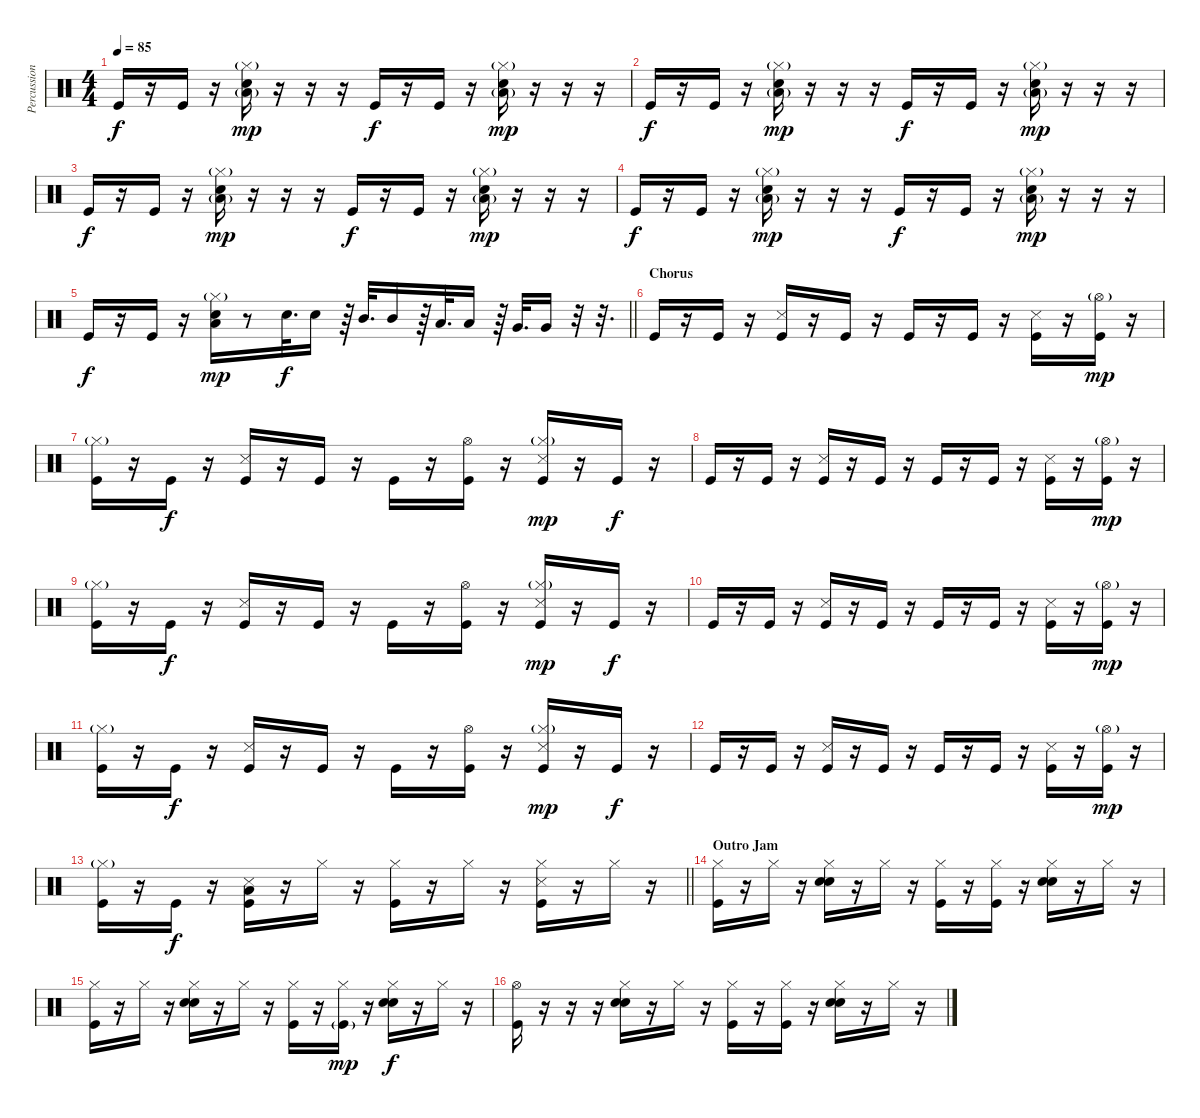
\track ("Percussion" "Percussion") {instrument percussion}
\staff {score}
\articulation defaults
\ts (4 4)
\tempo 85
\clef neutral
\ks c "Kick (hit)".16{dy f}
r.16 "Kick (hit)".16 r.16 ("Hi-Hat (closed)"{g} "Low Tom (hit)"{g} "Snare (hit) 2").16{dy mp} r.16 r.16 r.16 "Kick (hit)".16{dy f} r.16 "Kick (hit)".16 r.16 ("Hi-Hat (closed)"{g} "Low Tom (hit)"{g} "Snare (hit) 2").16{dy mp} r.16 r.16 r.16 |
"Kick (hit)".16{dy f} r.16 "Kick (hit)".16 r.16 ("Hi-Hat (closed)"{g} "Low Tom (hit)"{g} "Snare (hit) 2").16{dy mp} r.16 r.16 r.16 "Kick (hit)".16{dy f} r.16 "Kick (hit)".16 r.16 ("Hi-Hat (closed)"{g} "Low Tom (hit)"{g} "Snare (hit) 2").16{dy mp} r.16 r.16 r.16 |
"Kick (hit)".16{dy f} r.16 "Kick (hit)".16 r.16 ("Hi-Hat (closed)"{g} "Low Tom (hit)"{g} "Snare (hit) 2").16{dy mp} r.16 r.16 r.16 "Kick (hit)".16{dy f} r.16 "Kick (hit)".16 r.16 ("Hi-Hat (closed)"{g} "Low Tom (hit)"{g} "Snare (hit) 2").16{dy mp} r.16 r.16 r.16 |
"Kick (hit)".16{dy f} r.16 "Kick (hit)".16 r.16 ("Hi-Hat (closed)"{g} "Low Tom (hit)"{g} "Snare (hit) 2").16{dy mp} r.16 r.16 r.16 "Kick (hit)".16{dy f} r.16 "Kick (hit)".16 r.16 ("Hi-Hat (closed)"{g} "Low Tom (hit)"{g} "Snare (hit) 2").16{dy mp} r.16 r.16 r.16 |
\barLineRight lightlight "Kick (hit)".16{dy f}
r.16 "Kick (hit)".16 r.16 ("Hi-Hat (closed)"{g} "Low Tom (hit)" "Snare (hit) 2").16{dy mp} r.8 "Snare (hit) 2".32{d dy f} "Snare (hit) 2".16 r.64 "Mid Tom (hit)".32{d} "Mid Tom (hit)".16 r.64 "Low Tom (hit)".32{d} "Low Tom (hit)".16 r.64 "Very Low Tom (hit)".32{d} "Very Low Tom (hit)".16 r.32 r.32{d} |
\section ("" "Chorus")
"Kick (hit)".16 r.16 "Kick (hit)".16 r.16 ("Snare (side stick) 3" "Kick (hit)").16 r.16 "Kick (hit)".16 r.16 "Kick (hit)".16 r.16 "Kick (hit)".16 r.16 ("Snare (side stick) 3" "Kick (hit)").16 r.16 ("Hi-Hat (open)"{g} "Kick (hit)").16{dy mp} r.16 |
("Hi-Hat (closed)"{g} "Kick (hit)").16 r.16 "Kick (hit)".16{dy f} r.16 ("Snare (side stick) 3" "Kick (hit)").16 r.16 "Kick (hit)".16 r.16 "Kick (hit)".16 r.16 ("Hi-Hat (open)" "Kick (hit)").16 r.16 ("Hi-Hat (closed)"{g} "Snare (side stick) 3" "Kick (hit)").16{dy mp} r.16 "Kick (hit)".16{dy f} r.16 |
"Kick (hit)".16 r.16 "Kick (hit)".16 r.16 ("Snare (side stick) 3" "Kick (hit)").16 r.16 "Kick (hit)".16 r.16 "Kick (hit)".16 r.16 "Kick (hit)".16 r.16 ("Snare (side stick) 3" "Kick (hit)").16 r.16 ("Hi-Hat (open)"{g} "Kick (hit)").16{dy mp} r.16 |
("Hi-Hat (closed)"{g} "Kick (hit)").16 r.16 "Kick (hit)".16{dy f} r.16 ("Snare (side stick) 3" "Kick (hit)").16 r.16 "Kick (hit)".16 r.16 "Kick (hit)".16 r.16 ("Hi-Hat (open)" "Kick (hit)").16 r.16 ("Hi-Hat (closed)"{g} "Snare (side stick) 3" "Kick (hit)").16{dy mp} r.16 "Kick (hit)".16{dy f} r.16 |
"Kick (hit)".16 r.16 "Kick (hit)".16 r.16 ("Snare (side stick) 3" "Kick (hit)").16 r.16 "Kick (hit)".16 r.16 "Kick (hit)".16 r.16 "Kick (hit)".16 r.16 ("Snare (side stick) 3" "Kick (hit)").16 r.16 ("Hi-Hat (open)"{g} "Kick (hit)").16{dy mp} r.16 |
("Hi-Hat (closed)"{g} "Kick (hit)").16 r.16 "Kick (hit)".16{dy f} r.16 ("Snare (side stick) 3" "Kick (hit)").16 r.16 "Kick (hit)".16 r.16 "Kick (hit)".16 r.16 ("Hi-Hat (open)" "Kick (hit)").16 r.16 ("Hi-Hat (closed)"{g} "Snare (side stick) 3" "Kick (hit)").16{dy mp} r.16 "Kick (hit)".16{dy f} r.16 |
"Kick (hit)".16 r.16 "Kick (hit)".16 r.16 ("Snare (side stick) 3" "Kick (hit)").16 r.16 "Kick (hit)".16 r.16 "Kick (hit)".16 r.16 "Kick (hit)".16 r.16 ("Snare (side stick) 3" "Kick (hit)").16 r.16 ("Hi-Hat (open)"{g} "Kick (hit)").16{dy mp} r.16 |
\barLineRight lightlight
("Hi-Hat (closed)"{g} "Kick (hit)").16 r.16 "Kick (hit)".16{dy f} r.16 ("Low Tom (hit)" "Snare (side stick) 3" "Kick (hit)").16 r.16 "Hi-Hat (closed)".16 r.16 ("Hi-Hat (closed)" "Kick (hit)").16 r.16 "Hi-Hat (closed)".16 r.16 ("Hi-Hat (closed)" "Snare (side stick) 3" "Kick (hit)").16 r.16 "Hi-Hat (closed)".16 r.16 |
\section ("" "Outro Jam")
("Hi-Hat (closed)" "Kick (hit)").16 r.16 "Hi-Hat (closed)".16 r.16 ("Hi-Hat (closed)" "Hand Clap (hit)" "Snare (hit) 2").16 r.16 "Hi-Hat (closed)".16 r.16 ("Hi-Hat (closed)" "Kick (hit)").16 r.16 ("Hi-Hat (closed)" "Kick (hit)").16 r.16 ("Hi-Hat (closed)" "Hand Clap (hit)" "Snare (hit) 2").16 r.16 "Hi-Hat (closed)".16 r.16 |
("Hi-Hat (closed)" "Kick (hit)").16 r.16 "Hi-Hat (closed)".16 r.16 ("Hi-Hat (closed)" "Hand Clap (hit)" "Snare (hit) 2").16 r.16 "Hi-Hat (closed)".16 r.16 ("Hi-Hat (closed)" "Kick (hit)").16 r.16 ("Hi-Hat (closed)" "Kick (hit)"{g}).16{dy mp} r.16 ("Hi-Hat (closed)" "Hand Clap (hit)" "Snare (hit) 2").16{dy f} r.16 "Hi-Hat (closed)".16 r.16 |
("Hi-Hat (open)" "Kick (hit)").16 r.16 r.16 r.16 ("Hi-Hat (closed)" "Hand Clap (hit)" "Snare (hit) 2").16 r.16 "Hi-Hat (closed)".16 r.16 ("Hi-Hat (closed)" "Kick (hit)").16 r.16 ("Hi-Hat (closed)" "Kick (hit)").16 r.16 ("Hi-Hat (closed)" "Hand Clap (hit)" "Snare (hit) 2").16 r.16 "Hi-Hat (closed)".16 r.16
